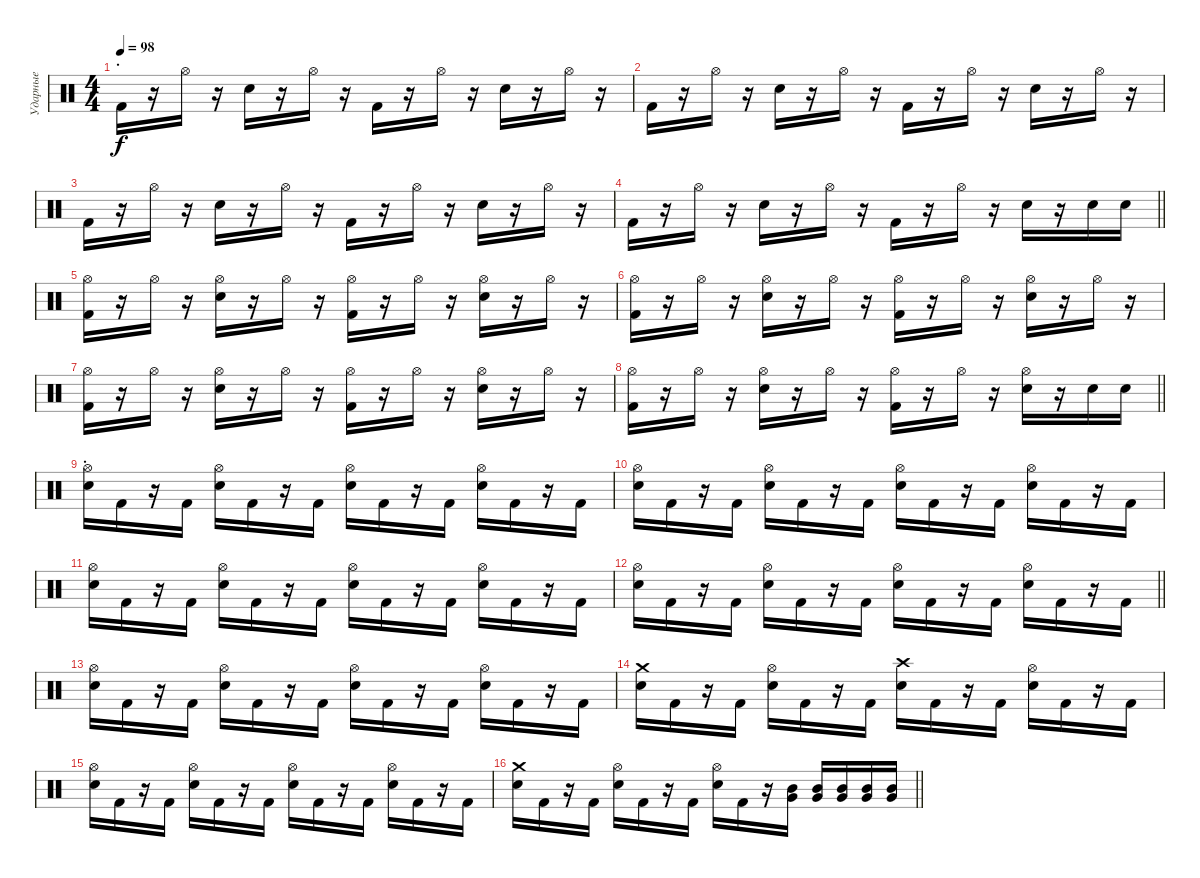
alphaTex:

\track ("Ударные" "Ударные") {instrument percussion}
\staff {score}
\articulation defaults
\ts (4 4)
\section ("" ".")
\tempo 98
\clef neutral
\ks c "Kick (hit) 2".16{dy f}
r.16 "Hi-Hat (open)".16 r.16 "Snare (hit) 2".16 r.16 "Hi-Hat (open)".16 r.16 "Kick (hit) 2".16 r.16 "Hi-Hat (open)".16 r.16 "Snare (hit) 2".16 r.16 "Hi-Hat (open)".16 r.16 |
"Kick (hit) 2".16 r.16 "Hi-Hat (open)".16 r.16 "Snare (hit) 2".16 r.16 "Hi-Hat (open)".16 r.16 "Kick (hit) 2".16 r.16 "Hi-Hat (open)".16 r.16 "Snare (hit) 2".16 r.16 "Hi-Hat (open)".16 r.16 |
"Kick (hit) 2".16 r.16 "Hi-Hat (open)".16 r.16 "Snare (hit) 2".16 r.16 "Hi-Hat (open)".16 r.16 "Kick (hit) 2".16 r.16 "Hi-Hat (open)".16 r.16 "Snare (hit) 2".16 r.16 "Hi-Hat (open)".16 r.16 |
\barLineRight lightlight "Kick (hit) 2".16
r.16 "Hi-Hat (open)".16 r.16 "Snare (hit) 2".16 r.16 "Hi-Hat (open)".16 r.16 "Kick (hit) 2".16 r.16 "Hi-Hat (open)".16 r.16 "Snare (hit) 2".16 r.16 "Snare (hit) 2".16 "Snare (hit) 2".16 |
("Hi-Hat (open)" "Kick (hit) 2").16 r.16 "Hi-Hat (open)".16 r.16 ("Hi-Hat (open)" "Snare (hit) 2").16 r.16 "Hi-Hat (open)".16 r.16 ("Hi-Hat (open)" "Kick (hit) 2").16 r.16 "Hi-Hat (open)".16 r.16 ("Hi-Hat (open)" "Snare (hit) 2").16 r.16 "Hi-Hat (open)".16 r.16 |
("Hi-Hat (open)" "Kick (hit) 2").16 r.16 "Hi-Hat (open)".16 r.16 ("Hi-Hat (open)" "Snare (hit) 2").16 r.16 "Hi-Hat (open)".16 r.16 ("Hi-Hat (open)" "Kick (hit) 2").16 r.16 "Hi-Hat (open)".16 r.16 ("Hi-Hat (open)" "Snare (hit) 2").16 r.16 "Hi-Hat (open)".16 r.16 |
("Hi-Hat (open)" "Kick (hit) 2").16 r.16 "Hi-Hat (open)".16 r.16 ("Hi-Hat (open)" "Snare (hit) 2").16 r.16 "Hi-Hat (open)".16 r.16 ("Hi-Hat (open)" "Kick (hit) 2").16 r.16 "Hi-Hat (open)".16 r.16 ("Hi-Hat (open)" "Snare (hit) 2").16 r.16 "Hi-Hat (open)".16 r.16 |
\barLineRight lightlight
("Hi-Hat (open)" "Kick (hit) 2").16 r.16 "Hi-Hat (open)".16 r.16 ("Hi-Hat (open)" "Snare (hit) 2").16 r.16 "Hi-Hat (open)".16 r.16 ("Hi-Hat (open)" "Kick (hit) 2").16 r.16 "Hi-Hat (open)".16 r.16 ("Hi-Hat (open)" "Snare (hit) 2").16 r.16 "Snare (hit) 2".16 "Snare (hit) 2".16 |
\section ("" ".")
("Hi-Hat (open)" "Snare (hit) 2").16 "Kick (hit) 2".16 r.16 "Kick (hit) 2".16 ("Hi-Hat (open)" "Snare (hit) 2").16 "Kick (hit) 2".16 r.16 "Kick (hit) 2".16 ("Hi-Hat (open)" "Snare (hit) 2").16 "Kick (hit) 2".16 r.16 "Kick (hit) 2".16 ("Hi-Hat (open)" "Snare (hit) 2").16 "Kick (hit) 2".16 r.16 "Kick (hit) 2".16 |
("Hi-Hat (open)" "Snare (hit) 2").16 "Kick (hit) 2".16 r.16 "Kick (hit) 2".16 ("Hi-Hat (open)" "Snare (hit) 2").16 "Kick (hit) 2".16 r.16 "Kick (hit) 2".16 ("Hi-Hat (open)" "Snare (hit) 2").16 "Kick (hit) 2".16 r.16 "Kick (hit) 2".16 ("Hi-Hat (open)" "Snare (hit) 2").16 "Kick (hit) 2".16 r.16 "Kick (hit) 2".16 |
("Hi-Hat (open)" "Snare (hit) 2").16 "Kick (hit) 2".16 r.16 "Kick (hit) 2".16 ("Hi-Hat (open)" "Snare (hit) 2").16 "Kick (hit) 2".16 r.16 "Kick (hit) 2".16 ("Hi-Hat (open)" "Snare (hit) 2").16 "Kick (hit) 2".16 r.16 "Kick (hit) 2".16 ("Hi-Hat (open)" "Snare (hit) 2").16 "Kick (hit) 2".16 r.16 "Kick (hit) 2".16 |
\barLineRight lightlight
("Hi-Hat (open)" "Snare (hit) 2").16 "Kick (hit) 2".16 r.16 "Kick (hit) 2".16 ("Hi-Hat (open)" "Snare (hit) 2").16 "Kick (hit) 2".16 r.16 "Kick (hit) 2".16 ("Hi-Hat (open)" "Snare (hit) 2").16 "Kick (hit) 2".16 r.16 "Kick (hit) 2".16 ("Hi-Hat (open)" "Snare (hit) 2").16 "Kick (hit) 2".16 r.16 "Kick (hit) 2".16 |
("Hi-Hat (open)" "Snare (hit) 2").16 "Kick (hit) 2".16 r.16 "Kick (hit) 2".16 ("Hi-Hat (open)" "Snare (hit) 2").16 "Kick (hit) 2".16 r.16 "Kick (hit) 2".16 ("Hi-Hat (open)" "Snare (hit) 2").16 "Kick (hit) 2".16 r.16 "Kick (hit) 2".16 ("Hi-Hat (open)" "Snare (hit) 2").16 "Kick (hit) 2".16 r.16 "Kick (hit) 2".16 |
("Crash medium (hit)" "Snare (hit) 2").16 "Kick (hit) 2".16 r.16 "Kick (hit) 2".16 ("Hi-Hat (open)" "Snare (hit) 2").16 "Kick (hit) 2".16 r.16 "Kick (hit) 2".16 ("Crash high (hit)" "Snare (hit) 2").16 "Kick (hit) 2".16 r.16 "Kick (hit) 2".16 ("Hi-Hat (open)" "Snare (hit) 2").16 "Kick (hit) 2".16 r.16 "Kick (hit) 2".16 |
("Hi-Hat (open)" "Snare (hit) 2").16 "Kick (hit) 2".16 r.16 "Kick (hit) 2".16 ("Hi-Hat (open)" "Snare (hit) 2").16 "Kick (hit) 2".16 r.16 "Kick (hit) 2".16 ("Hi-Hat (open)" "Snare (hit) 2").16 "Kick (hit) 2".16 r.16 "Kick (hit) 2".16 ("Hi-Hat (open)" "Snare (hit) 2").16 "Kick (hit) 2".16 r.16 "Kick (hit) 2".16 |
\barLineRight lightlight
("Crash medium (hit)" "Snare (hit) 2").16 "Kick (hit) 2".16 r.16 "Kick (hit) 2".16 ("Hi-Hat (open)" "Snare (hit) 2").16 "Kick (hit) 2".16 r.16 "Kick (hit) 2".16 ("Hi-Hat (open)" "Snare (hit) 2").16 "Kick (hit) 2".16 r.16 ("Very Low Tom (hit)" "Mid Tom (hit)").16 ("Very Low Tom (hit)" "Mid Tom (hit)").16 ("Very Low Tom (hit)" "Mid Tom (hit)").16 ("Very Low Tom (hit)" "Mid Tom (hit)").16 ("Very Low Tom (hit)" "Mid Tom (hit)").16
